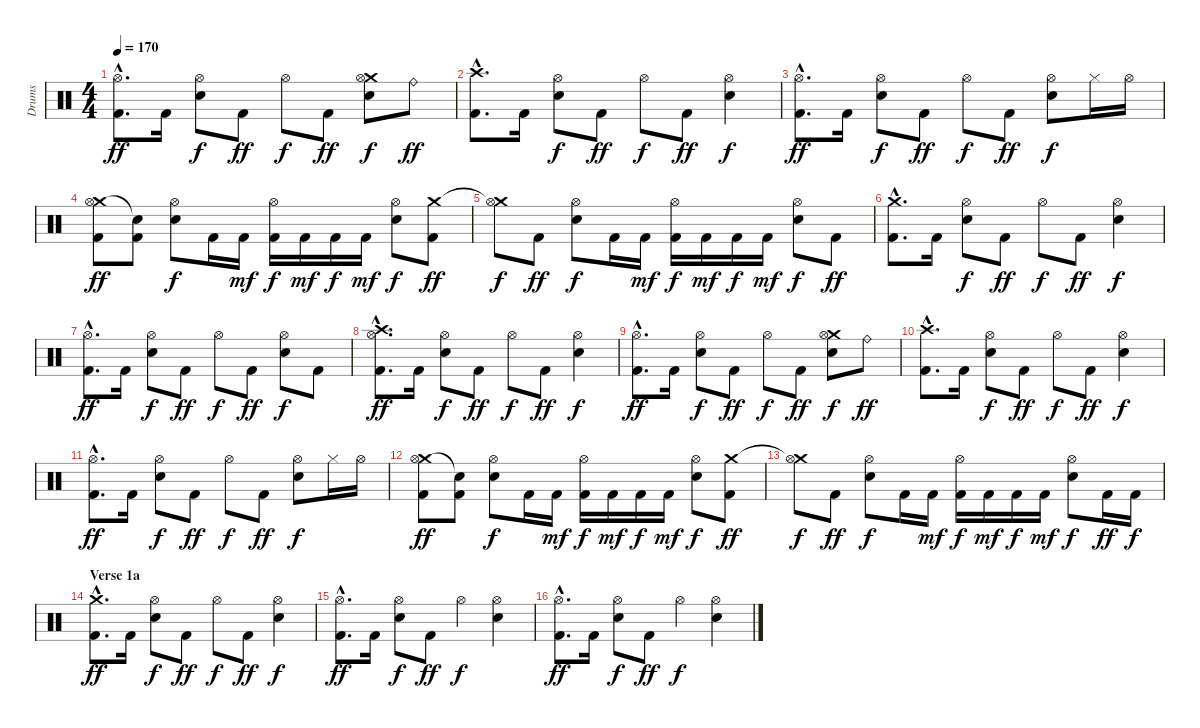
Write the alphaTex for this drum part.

\track ("Drums" "Drums") {instrument percussion}
\staff {score}
\articulation defaults
\ts (4 4)
\tempo 170
\clef neutral
\ks c
("Hi-Hat (open)"{hac} "Kick (hit) 2"{hac}).8{d dy ff} "Kick (hit) 2".16 ("Hi-Hat (open)" "Snare (hit) 2").8{dy f} "Kick (hit) 2".8{dy ff} "Hi-Hat (open)".8{dy f} "Kick (hit) 2".8{dy ff} ("Crash medium (hit)" "Hi-Hat (open)" "Snare (hit) 2").8{dy f} "Ride (bell)".8{dy ff} |
("Crash high (hit)"{hac} "Kick (hit) 2"{hac}).8{d} "Kick (hit) 2".16 ("Hi-Hat (open)" "Snare (hit) 2").8{dy f} "Kick (hit) 2".8{dy ff} "Hi-Hat (open)".8{dy f} "Kick (hit) 2".8{dy ff} ("Hi-Hat (open)" "Snare (hit) 2").4{dy f} |
("Hi-Hat (open)"{hac} "Kick (hit) 2"{hac}).8{d dy ff} "Kick (hit) 2".16 ("Hi-Hat (open)" "Snare (hit) 2").8{dy f} "Kick (hit) 2".8{dy ff} "Hi-Hat (open)".8{dy f} "Kick (hit) 2".8{dy ff} ("Hi-Hat (open)" "Snare (hit) 2").8{dy f} "Hi-Hat (closed)".16 "Hi-Hat (open)".16 |
("Crash medium (hit)" "Hi-Hat (open)" "Kick (hit) 2").8{dy ff} ("Snare (hit)"{t} "Kick (hit) 2").8 ("Hi-Hat (open)" "Snare (hit) 2").8{dy f} "Kick (hit) 2".16 "Kick (hit) 2".16{dy mf} ("Hi-Hat (open)" "Kick (hit) 2").16{dy f} "Kick (hit) 2".16{dy mf} "Kick (hit) 2".16{dy f} "Kick (hit) 2".16{dy mf} ("Hi-Hat (open)" "Snare (hit) 2").8{dy f} ("Crash medium (hit)" "Kick (hit) 2").8{dy ff} |
("Crash medium (hit)"{t} "Hi-Hat (open)").8{dy f} "Kick (hit) 2".8{dy ff} ("Hi-Hat (open)" "Snare (hit) 2").8{dy f} "Kick (hit) 2".16 "Kick (hit) 2".16{dy mf} ("Hi-Hat (open)" "Kick (hit) 2").16{dy f} "Kick (hit) 2".16{dy mf} "Kick (hit) 2".16{dy f} "Kick (hit) 2".16{dy mf} ("Hi-Hat (open)" "Snare (hit) 2").8{dy f} "Kick (hit) 2".8{dy ff} |
("Crash medium (hit)"{hac} "Kick (hit) 2"{hac}).8{d} "Kick (hit) 2".16 ("Hi-Hat (open)" "Snare (hit) 2").8{dy f} "Kick (hit) 2".8{dy ff} "Hi-Hat (open)".8{dy f} "Kick (hit) 2".8{dy ff} ("Hi-Hat (open)" "Snare (hit) 2").4{dy f} |
("Hi-Hat (open)"{hac} "Kick (hit) 2"{hac}).8{d dy ff} "Kick (hit) 2".16 ("Hi-Hat (open)" "Snare (hit) 2").8{dy f} "Kick (hit) 2".8{dy ff} "Hi-Hat (open)".8{dy f} "Kick (hit) 2".8{dy ff} ("Hi-Hat (open)" "Snare (hit) 2").8{dy f} "Kick (hit) 2".8 |
("Crash high (hit)"{hac} "Hi-Hat (open)"{hac} "Kick (hit) 2"{hac}).8{d dy ff} "Kick (hit) 2".16 ("Hi-Hat (open)" "Snare (hit) 2").8{dy f} "Kick (hit) 2".8{dy ff} "Hi-Hat (open)".8{dy f} "Kick (hit) 2".8{dy ff} ("Hi-Hat (open)" "Snare (hit) 2").4{dy f} |
("Hi-Hat (open)"{hac} "Kick (hit) 2"{hac}).8{d dy ff} "Kick (hit) 2".16 ("Hi-Hat (open)" "Snare (hit) 2").8{dy f} "Kick (hit) 2".8{dy ff} "Hi-Hat (open)".8{dy f} "Kick (hit) 2".8{dy ff} ("Crash medium (hit)" "Hi-Hat (open)" "Snare (hit) 2").8{dy f} "Ride (bell)".8{dy ff} |
("Crash high (hit)"{hac} "Kick (hit) 2"{hac}).8{d} "Kick (hit) 2".16 ("Hi-Hat (open)" "Snare (hit) 2").8{dy f} "Kick (hit) 2".8{dy ff} "Hi-Hat (open)".8{dy f} "Kick (hit) 2".8{dy ff} ("Hi-Hat (open)" "Snare (hit) 2").4{dy f} |
("Hi-Hat (open)"{hac} "Kick (hit) 2"{hac}).8{d dy ff} "Kick (hit) 2".16 ("Hi-Hat (open)" "Snare (hit) 2").8{dy f} "Kick (hit) 2".8{dy ff} "Hi-Hat (open)".8{dy f} "Kick (hit) 2".8{dy ff} ("Hi-Hat (open)" "Snare (hit) 2").8{dy f} "Hi-Hat (closed)".16 "Hi-Hat (open)".16 |
("Crash medium (hit)" "Hi-Hat (open)" "Kick (hit) 2").8{dy ff} ("Snare (hit)"{t} "Kick (hit) 2").8 ("Hi-Hat (open)" "Snare (hit) 2").8{dy f} "Kick (hit) 2".16 "Kick (hit) 2".16{dy mf} ("Hi-Hat (open)" "Kick (hit) 2").16{dy f} "Kick (hit) 2".16{dy mf} "Kick (hit) 2".16{dy f} "Kick (hit) 2".16{dy mf} ("Hi-Hat (open)" "Snare (hit) 2").8{dy f} ("Crash medium (hit)" "Kick (hit) 2").8{dy ff} |
("Crash medium (hit)"{t} "Hi-Hat (open)").8{dy f} "Kick (hit) 2".8{dy ff} ("Hi-Hat (open)" "Snare (hit) 2").8{dy f} "Kick (hit) 2".16 "Kick (hit) 2".16{dy mf} ("Hi-Hat (open)" "Kick (hit) 2").16{dy f} "Kick (hit) 2".16{dy mf} "Kick (hit) 2".16{dy f} "Kick (hit) 2".16{dy mf} ("Hi-Hat (open)" "Snare (hit) 2").8{dy f} "Kick (hit) 2".16{dy ff} "Kick (hit) 2".16{dy f} |
\section ("" "Verse 1a")
("Crash medium (hit)"{hac} "Kick (hit) 2"{hac}).8{d dy ff} "Kick (hit) 2".16 ("Hi-Hat (open)" "Snare (hit) 2").8{dy f} "Kick (hit) 2".8{dy ff} "Hi-Hat (open)".8{dy f} "Kick (hit) 2".8{dy ff} ("Hi-Hat (open)" "Snare (hit) 2").4{dy f} |
("Hi-Hat (open)"{hac} "Kick (hit) 2"{hac}).8{d dy ff} "Kick (hit) 2".16 ("Hi-Hat (open)" "Snare (hit) 2").8{dy f} "Kick (hit) 2".8{dy ff} "Hi-Hat (open)".4{dy f} ("Hi-Hat (open)" "Snare (hit) 2").4 |
("Hi-Hat (open)"{hac} "Kick (hit) 2"{hac}).8{d dy ff} "Kick (hit) 2".16 ("Hi-Hat (open)" "Snare (hit) 2").8{dy f} "Kick (hit) 2".8{dy ff} "Hi-Hat (open)".4{dy f} ("Hi-Hat (open)" "Snare (hit) 2").4
